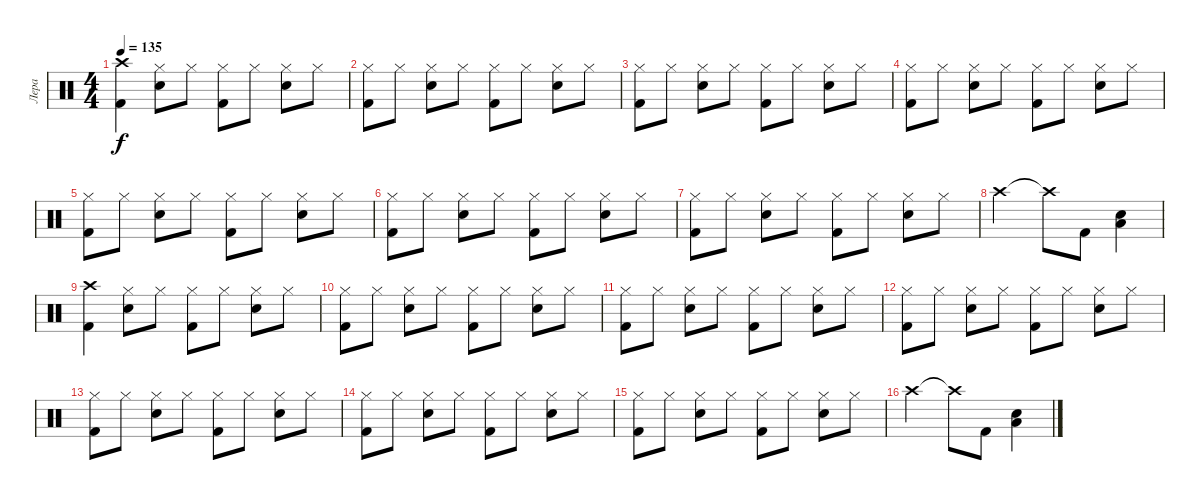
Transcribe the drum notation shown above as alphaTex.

\track ("Лера" "Лера") {instrument percussion}
\staff {score}
\articulation defaults
\ts (4 4)
\tempo 135
\clef neutral
\ks c
("Crash high (hit)" "Kick (hit) 2").4{dy f} ("Hi-Hat (closed)" "Electric Snare (hit)").8 "Hi-Hat (closed)".8 ("Hi-Hat (closed)" "Kick (hit) 2").8 "Hi-Hat (closed)".8 ("Hi-Hat (closed)" "Electric Snare (hit)").8 "Hi-Hat (closed)".8 |
("Hi-Hat (closed)" "Kick (hit) 2").8 "Hi-Hat (closed)".8 ("Hi-Hat (closed)" "Electric Snare (hit)").8 "Hi-Hat (closed)".8 ("Hi-Hat (closed)" "Kick (hit) 2").8 "Hi-Hat (closed)".8 ("Hi-Hat (closed)" "Electric Snare (hit)").8 "Hi-Hat (closed)".8 |
("Hi-Hat (closed)" "Kick (hit) 2").8 "Hi-Hat (closed)".8 ("Hi-Hat (closed)" "Electric Snare (hit)").8 "Hi-Hat (closed)".8 ("Hi-Hat (closed)" "Kick (hit) 2").8 "Hi-Hat (closed)".8 ("Hi-Hat (closed)" "Electric Snare (hit)").8 "Hi-Hat (closed)".8 |
("Hi-Hat (closed)" "Kick (hit) 2").8 "Hi-Hat (closed)".8 ("Hi-Hat (closed)" "Electric Snare (hit)").8 "Hi-Hat (closed)".8 ("Hi-Hat (closed)" "Kick (hit) 2").8 "Hi-Hat (closed)".8 ("Hi-Hat (closed)" "Electric Snare (hit)").8 "Hi-Hat (closed)".8 |
("Hi-Hat (closed)" "Kick (hit) 2").8 "Hi-Hat (closed)".8 ("Hi-Hat (closed)" "Electric Snare (hit)").8 "Hi-Hat (closed)".8 ("Hi-Hat (closed)" "Kick (hit) 2").8 "Hi-Hat (closed)".8 ("Hi-Hat (closed)" "Electric Snare (hit)").8 "Hi-Hat (closed)".8 |
("Hi-Hat (closed)" "Kick (hit) 2").8 "Hi-Hat (closed)".8 ("Hi-Hat (closed)" "Electric Snare (hit)").8 "Hi-Hat (closed)".8 ("Hi-Hat (closed)" "Kick (hit) 2").8 "Hi-Hat (closed)".8 ("Hi-Hat (closed)" "Electric Snare (hit)").8 "Hi-Hat (closed)".8 |
("Hi-Hat (closed)" "Kick (hit) 2").8 "Hi-Hat (closed)".8 ("Hi-Hat (closed)" "Electric Snare (hit)").8 "Hi-Hat (closed)".8 ("Hi-Hat (closed)" "Kick (hit) 2").8 "Hi-Hat (closed)".8 ("Hi-Hat (closed)" "Electric Snare (hit)").8 "Hi-Hat (closed)".8 |
"Crash high (hit)".2 "Crash high (hit)"{t}.8 "Kick (hit) 2".8 ("Electric Snare (hit)" "Low Tom (hit)").4 |
("Crash high (hit)" "Kick (hit) 2").4 ("Hi-Hat (closed)" "Electric Snare (hit)").8 "Hi-Hat (closed)".8 ("Hi-Hat (closed)" "Kick (hit) 2").8 "Hi-Hat (closed)".8 ("Hi-Hat (closed)" "Electric Snare (hit)").8 "Hi-Hat (closed)".8 |
("Hi-Hat (closed)" "Kick (hit) 2").8 "Hi-Hat (closed)".8 ("Hi-Hat (closed)" "Electric Snare (hit)").8 "Hi-Hat (closed)".8 ("Hi-Hat (closed)" "Kick (hit) 2").8 "Hi-Hat (closed)".8 ("Hi-Hat (closed)" "Electric Snare (hit)").8 "Hi-Hat (closed)".8 |
("Hi-Hat (closed)" "Kick (hit) 2").8 "Hi-Hat (closed)".8 ("Hi-Hat (closed)" "Electric Snare (hit)").8 "Hi-Hat (closed)".8 ("Hi-Hat (closed)" "Kick (hit) 2").8 "Hi-Hat (closed)".8 ("Hi-Hat (closed)" "Electric Snare (hit)").8 "Hi-Hat (closed)".8 |
("Hi-Hat (closed)" "Kick (hit) 2").8 "Hi-Hat (closed)".8 ("Hi-Hat (closed)" "Electric Snare (hit)").8 "Hi-Hat (closed)".8 ("Hi-Hat (closed)" "Kick (hit) 2").8 "Hi-Hat (closed)".8 ("Hi-Hat (closed)" "Electric Snare (hit)").8 "Hi-Hat (closed)".8 |
("Hi-Hat (closed)" "Kick (hit) 2").8 "Hi-Hat (closed)".8 ("Hi-Hat (closed)" "Electric Snare (hit)").8 "Hi-Hat (closed)".8 ("Hi-Hat (closed)" "Kick (hit) 2").8 "Hi-Hat (closed)".8 ("Hi-Hat (closed)" "Electric Snare (hit)").8 "Hi-Hat (closed)".8 |
("Hi-Hat (closed)" "Kick (hit) 2").8 "Hi-Hat (closed)".8 ("Hi-Hat (closed)" "Electric Snare (hit)").8 "Hi-Hat (closed)".8 ("Hi-Hat (closed)" "Kick (hit) 2").8 "Hi-Hat (closed)".8 ("Hi-Hat (closed)" "Electric Snare (hit)").8 "Hi-Hat (closed)".8 |
("Hi-Hat (closed)" "Kick (hit) 2").8 "Hi-Hat (closed)".8 ("Hi-Hat (closed)" "Electric Snare (hit)").8 "Hi-Hat (closed)".8 ("Hi-Hat (closed)" "Kick (hit) 2").8 "Hi-Hat (closed)".8 ("Hi-Hat (closed)" "Electric Snare (hit)").8 "Hi-Hat (closed)".8 |
"Crash high (hit)".2 "Crash high (hit)"{t}.8 "Kick (hit) 2".8 ("Electric Snare (hit)" "Low Tom (hit)").4
